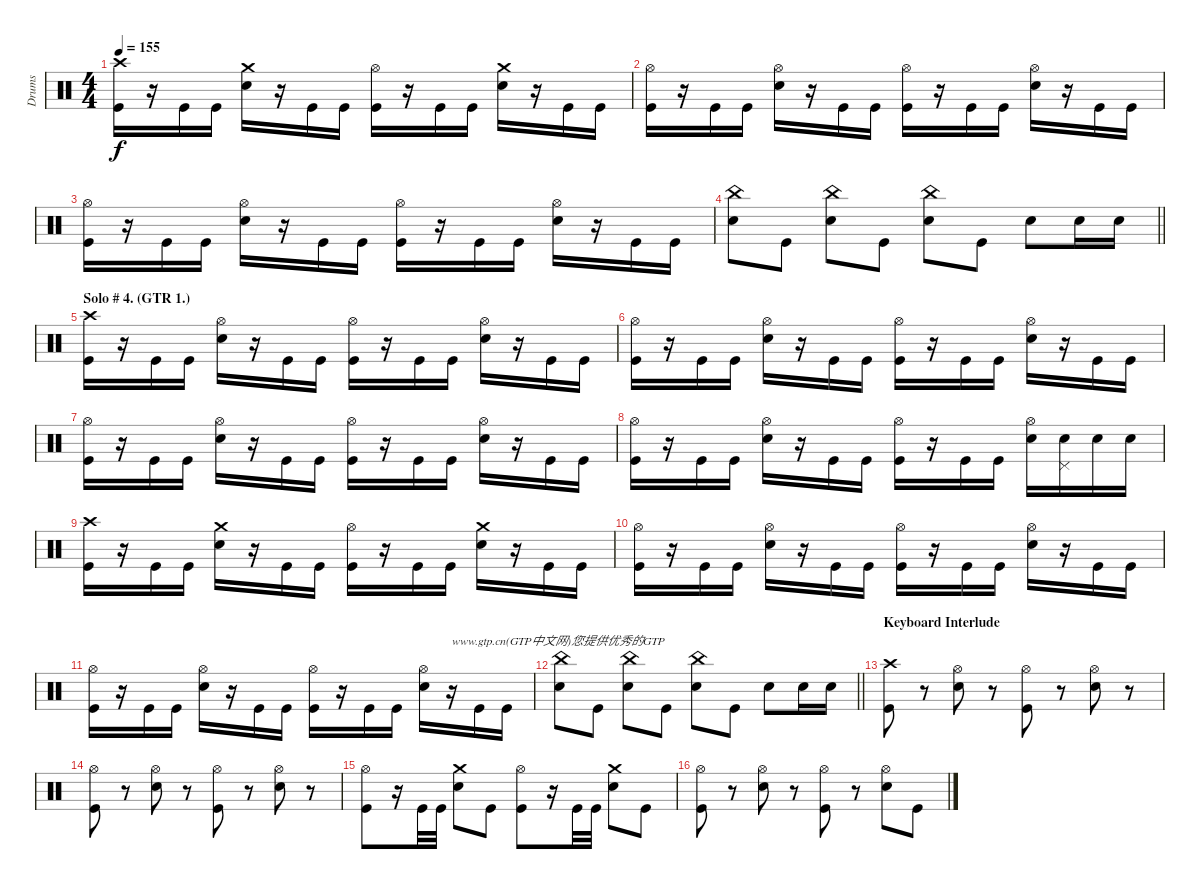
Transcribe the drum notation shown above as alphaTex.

\track ("Drums" "Drums") {instrument percussion}
\staff {score}
\articulation defaults
\ts (4 4)
\tempo 155
\clef neutral
\ks c
("Crash high (hit)" "Kick (hit)").16{dy f} r.16 "Kick (hit)".16 "Kick (hit)".16 ("Crash medium (hit)" "Electric Snare (hit)").16 r.16 "Kick (hit)".16 "Kick (hit)".16 ("Hi-Hat (open)" "Kick (hit)").16 r.16 "Kick (hit)".16 "Kick (hit)".16 ("Crash medium (hit)" "Electric Snare (hit)").16 r.16 "Kick (hit)".16 "Kick (hit)".16 |
("Hi-Hat (open)" "Kick (hit)").16 r.16 "Kick (hit)".16 "Kick (hit)".16 ("Hi-Hat (open)" "Electric Snare (hit)").16 r.16 "Kick (hit)".16 "Kick (hit)".16 ("Hi-Hat (open)" "Kick (hit)").16 r.16 "Kick (hit)".16 "Kick (hit)".16 ("Hi-Hat (open)" "Electric Snare (hit)").16 r.16 "Kick (hit)".16 "Kick (hit)".16 |
("Hi-Hat (open)" "Kick (hit)").16 r.16 "Kick (hit)".16 "Kick (hit)".16 ("Hi-Hat (open)" "Electric Snare (hit)").16 r.16 "Kick (hit)".16 "Kick (hit)".16 ("Hi-Hat (open)" "Kick (hit)").16 r.16 "Kick (hit)".16 "Kick (hit)".16 ("Hi-Hat (open)" "Electric Snare (hit)").16 r.16 "Kick (hit)".16 "Kick (hit)".16 |
\barLineRight lightlight
("China (hit)" "Electric Snare (hit)").8 "Kick (hit)".8 ("China (hit)" "Electric Snare (hit)").8 "Kick (hit)".8 ("China (hit)" "Electric Snare (hit)").8 "Kick (hit)".8 "Electric Snare (hit)".8 "Electric Snare (hit)".16 "Electric Snare (hit)".16 |
\section ("" "Solo # 4. (GTR 1.)")
("Crash high (hit)" "Kick (hit)").16 r.16 "Kick (hit)".16 "Kick (hit)".16 ("Hi-Hat (open)" "Electric Snare (hit)").16 r.16 "Kick (hit)".16 "Kick (hit)".16 ("Hi-Hat (open)" "Kick (hit)").16 r.16 "Kick (hit)".16 "Kick (hit)".16 ("Hi-Hat (open)" "Electric Snare (hit)").16 r.16 "Kick (hit)".16 "Kick (hit)".16 |
("Hi-Hat (open)" "Kick (hit)").16 r.16 "Kick (hit)".16 "Kick (hit)".16 ("Hi-Hat (open)" "Electric Snare (hit)").16 r.16 "Kick (hit)".16 "Kick (hit)".16 ("Hi-Hat (open)" "Kick (hit)").16 r.16 "Kick (hit)".16 "Kick (hit)".16 ("Hi-Hat (open)" "Electric Snare (hit)").16 r.16 "Kick (hit)".16 "Kick (hit)".16 |
("Hi-Hat (open)" "Kick (hit)").16 r.16 "Kick (hit)".16 "Kick (hit)".16 ("Hi-Hat (open)" "Electric Snare (hit)").16 r.16 "Kick (hit)".16 "Kick (hit)".16 ("Hi-Hat (open)" "Kick (hit)").16 r.16 "Kick (hit)".16 "Kick (hit)".16 ("Hi-Hat (open)" "Electric Snare (hit)").16 r.16 "Kick (hit)".16 "Kick (hit)".16 |
("Hi-Hat (open)" "Kick (hit)").16 r.16 "Kick (hit)".16 "Kick (hit)".16 ("Hi-Hat (open)" "Electric Snare (hit)").16 r.16 "Kick (hit)".16 "Kick (hit)".16 ("Hi-Hat (open)" "Kick (hit)").16 r.16 "Kick (hit)".16 "Kick (hit)".16 ("Hi-Hat (open)" "Electric Snare (hit)").16 ("Pedal Hi-Hat (hit)" "Electric Snare (hit)").16 "Electric Snare (hit)".16 "Electric Snare (hit)".16 |
("Crash high (hit)" "Kick (hit)").16 r.16 "Kick (hit)".16 "Kick (hit)".16 ("Crash medium (hit)" "Electric Snare (hit)").16 r.16 "Kick (hit)".16 "Kick (hit)".16 ("Hi-Hat (open)" "Kick (hit)").16 r.16 "Kick (hit)".16 "Kick (hit)".16 ("Crash medium (hit)" "Electric Snare (hit)").16 r.16 "Kick (hit)".16 "Kick (hit)".16 |
("Hi-Hat (open)" "Kick (hit)").16 r.16 "Kick (hit)".16 "Kick (hit)".16 ("Hi-Hat (open)" "Electric Snare (hit)").16 r.16 "Kick (hit)".16 "Kick (hit)".16 ("Hi-Hat (open)" "Kick (hit)").16 r.16 "Kick (hit)".16 "Kick (hit)".16 ("Hi-Hat (open)" "Electric Snare (hit)").16 r.16 "Kick (hit)".16 "Kick (hit)".16 |
("Hi-Hat (open)" "Kick (hit)").16 r.16 "Kick (hit)".16 "Kick (hit)".16 ("Hi-Hat (open)" "Electric Snare (hit)").16 r.16 "Kick (hit)".16 "Kick (hit)".16 ("Hi-Hat (open)" "Kick (hit)").16 r.16 "Kick (hit)".16 "Kick (hit)".16 ("Hi-Hat (open)" "Electric Snare (hit)").16 r.16{txt "www.gtp.cn(GTP中文网)您提供优秀的GTP"} "Kick (hit)".16 "Kick (hit)".16 |
\barLineRight lightlight
("China (hit)" "Electric Snare (hit)").8 "Kick (hit)".8 ("China (hit)" "Electric Snare (hit)").8 "Kick (hit)".8 ("China (hit)" "Electric Snare (hit)").8 "Kick (hit)".8 "Electric Snare (hit)".8 "Electric Snare (hit)".16 "Electric Snare (hit)".16 |
\section ("" "Keyboard Interlude")
("Crash high (hit)" "Kick (hit)").8 r.8 ("Hi-Hat (open)" "Electric Snare (hit)").8 r.8 ("Hi-Hat (open)" "Kick (hit)").8 r.8 ("Hi-Hat (open)" "Electric Snare (hit)").8 r.8 |
("Hi-Hat (open)" "Kick (hit)").8 r.8 ("Hi-Hat (open)" "Electric Snare (hit)").8 r.8 ("Hi-Hat (open)" "Kick (hit)").8 r.8 ("Hi-Hat (open)" "Electric Snare (hit)").8 r.8 |
("Hi-Hat (open)" "Kick (hit)").8 r.16 "Kick (hit)".32 "Kick (hit)".32 ("Crash medium (hit)" "Electric Snare (hit)").8 "Kick (hit)".8 ("Hi-Hat (open)" "Kick (hit)").8 r.16 "Kick (hit)".32 "Kick (hit)".32 ("Crash medium (hit)" "Electric Snare (hit)").8 "Kick (hit)".8 |
("Hi-Hat (open)" "Kick (hit)").8 r.8 ("Hi-Hat (open)" "Electric Snare (hit)").8 r.8 ("Hi-Hat (open)" "Kick (hit)").8 r.8 ("Hi-Hat (open)" "Electric Snare (hit)").8 "Kick (hit)".8
